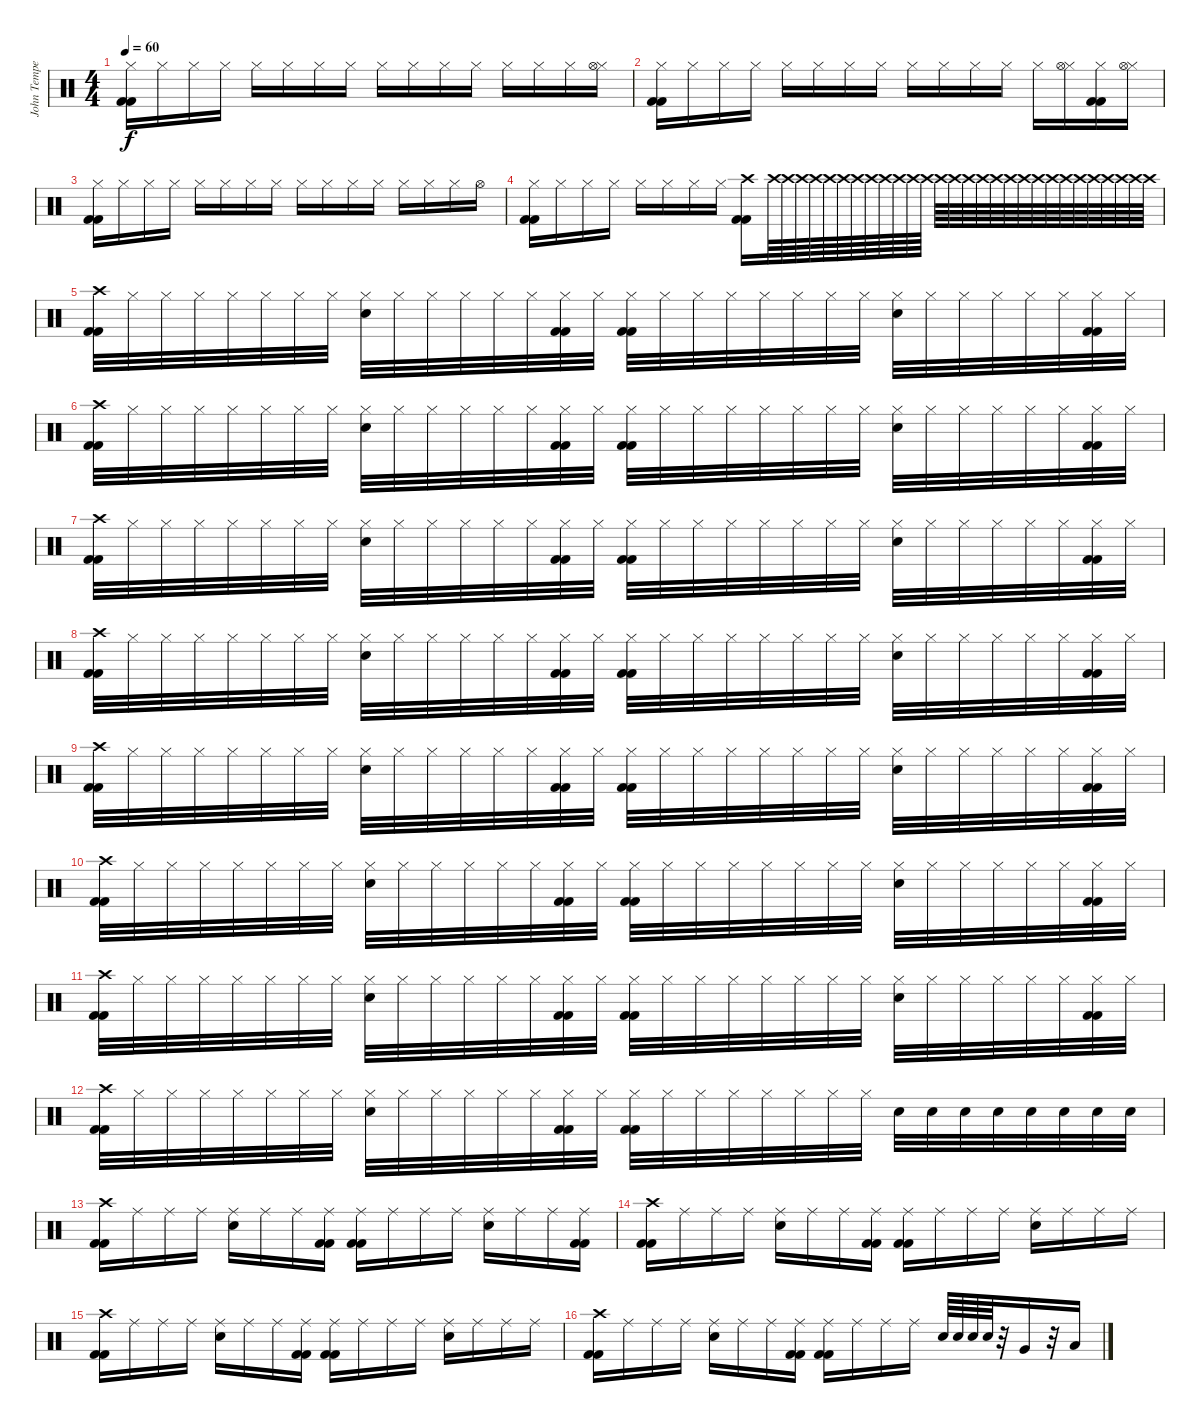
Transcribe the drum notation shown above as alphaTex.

\track ("John Tempesta" "John Tempe") {instrument percussion}
\staff {score}
\articulation defaults
\ts (4 4)
\tempo 60
\clef neutral
\ks c
("Hi-Hat (closed)" "Kick (hit) 2" "Kick (hit) 2").16{dy f} "Hi-Hat (closed)".16 "Hi-Hat (closed)".16 "Hi-Hat (closed)".16 "Hi-Hat (closed)".16 "Hi-Hat (closed)".16 "Hi-Hat (closed)".16 "Hi-Hat (closed)".16 "Hi-Hat (closed)".16 "Hi-Hat (closed)".16 "Hi-Hat (closed)".16 "Hi-Hat (closed)".16 "Hi-Hat (closed)".16 "Hi-Hat (closed)".16 "Hi-Hat (closed)".16 ("Hi-Hat (closed)" "Hi-Hat (open)").16 |
("Hi-Hat (closed)" "Kick (hit) 2" "Kick (hit) 2").16 "Hi-Hat (closed)".16 "Hi-Hat (closed)".16 "Hi-Hat (closed)".16 "Hi-Hat (closed)".16 "Hi-Hat (closed)".16 "Hi-Hat (closed)".16 "Hi-Hat (closed)".16 "Hi-Hat (closed)".16 "Hi-Hat (closed)".16 "Hi-Hat (closed)".16 "Hi-Hat (closed)".16 "Hi-Hat (closed)".16 ("Hi-Hat (closed)" "Hi-Hat (open)").16 ("Hi-Hat (closed)" "Kick (hit) 2" "Kick (hit) 2").16 ("Hi-Hat (closed)" "Hi-Hat (open)").16 |
("Hi-Hat (closed)" "Kick (hit) 2" "Kick (hit) 2").16 "Hi-Hat (closed)".16 "Hi-Hat (closed)".16 "Hi-Hat (closed)".16 "Hi-Hat (closed)".16 "Hi-Hat (closed)".16 "Hi-Hat (closed)".16 "Hi-Hat (closed)".16 "Hi-Hat (closed)".16 "Hi-Hat (closed)".16 "Hi-Hat (closed)".16 "Hi-Hat (closed)".16 "Hi-Hat (closed)".16 "Hi-Hat (closed)".16 "Hi-Hat (closed)".16 "Hi-Hat (open)".16 |
("Hi-Hat (closed)" "Kick (hit) 2" "Kick (hit) 2").16 "Hi-Hat (closed)".16 "Hi-Hat (closed)".16 "Hi-Hat (closed)".16 "Hi-Hat (closed)".16 "Hi-Hat (closed)".16 "Hi-Hat (closed)".16 "Hi-Hat (closed)".16 ("Crash high (hit)" "Kick (hit) 2" "Kick (hit) 2").16 "Crash high (hit)".64{volume 0} "Crash high (hit)".64{volume 12} "Crash high (hit)".64 "Crash high (hit)".64 "Crash high (hit)".64 "Crash high (hit)".64 "Crash high (hit)".64 "Crash high (hit)".64 "Crash high (hit)".64 "Crash high (hit)".64 "Crash high (hit)".64 "Crash high (hit)".64 "Crash high (hit)".64 "Crash high (hit)".64 "Crash high (hit)".64 "Crash high (hit)".64 "Crash high (hit)".64 "Crash high (hit)".64 "Crash high (hit)".64 "Crash high (hit)".64 "Crash high (hit)".64 "Crash high (hit)".64 "Crash high (hit)".64 "Crash high (hit)".64 "Crash high (hit)".64 "Crash high (hit)".64 "Crash high (hit)".64 "Crash high (hit)".64 |
("Crash high (hit)" "Kick (hit) 2" "Kick (hit) 2").32 "Hi-Hat (closed)".32 "Hi-Hat (closed)".32 "Hi-Hat (closed)".32 "Hi-Hat (closed)".32 "Hi-Hat (closed)".32 "Hi-Hat (closed)".32 "Hi-Hat (closed)".32 ("Hi-Hat (closed)" "Electric Snare (hit)").32 "Hi-Hat (closed)".32 "Hi-Hat (closed)".32 "Hi-Hat (closed)".32 "Hi-Hat (closed)".32 "Hi-Hat (closed)".32 ("Hi-Hat (closed)" "Kick (hit) 2" "Kick (hit) 2").32 "Hi-Hat (closed)".32 ("Hi-Hat (closed)" "Kick (hit) 2" "Kick (hit) 2").32 "Hi-Hat (closed)".32 "Hi-Hat (closed)".32 "Hi-Hat (closed)".32 "Hi-Hat (closed)".32 "Hi-Hat (closed)".32 "Hi-Hat (closed)".32 "Hi-Hat (closed)".32 ("Hi-Hat (closed)" "Electric Snare (hit)").32 "Hi-Hat (closed)".32 "Hi-Hat (closed)".32 "Hi-Hat (closed)".32 "Hi-Hat (closed)".32 "Hi-Hat (closed)".32 ("Hi-Hat (closed)" "Kick (hit) 2" "Kick (hit) 2").32 "Hi-Hat (closed)".32 |
("Crash high (hit)" "Kick (hit) 2" "Kick (hit) 2").32 "Hi-Hat (closed)".32 "Hi-Hat (closed)".32 "Hi-Hat (closed)".32 "Hi-Hat (closed)".32 "Hi-Hat (closed)".32 "Hi-Hat (closed)".32 "Hi-Hat (closed)".32 ("Hi-Hat (closed)" "Electric Snare (hit)").32 "Hi-Hat (closed)".32 "Hi-Hat (closed)".32 "Hi-Hat (closed)".32 "Hi-Hat (closed)".32 "Hi-Hat (closed)".32 ("Hi-Hat (closed)" "Kick (hit) 2" "Kick (hit) 2").32 "Hi-Hat (closed)".32 ("Hi-Hat (closed)" "Kick (hit) 2" "Kick (hit) 2").32 "Hi-Hat (closed)".32 "Hi-Hat (closed)".32 "Hi-Hat (closed)".32 "Hi-Hat (closed)".32 "Hi-Hat (closed)".32 "Hi-Hat (closed)".32 "Hi-Hat (closed)".32 ("Hi-Hat (closed)" "Electric Snare (hit)").32 "Hi-Hat (closed)".32 "Hi-Hat (closed)".32 "Hi-Hat (closed)".32 "Hi-Hat (closed)".32 "Hi-Hat (closed)".32 ("Hi-Hat (closed)" "Kick (hit) 2" "Kick (hit) 2").32 "Hi-Hat (closed)".32 |
("Crash high (hit)" "Kick (hit) 2" "Kick (hit) 2").32 "Hi-Hat (closed)".32 "Hi-Hat (closed)".32 "Hi-Hat (closed)".32 "Hi-Hat (closed)".32 "Hi-Hat (closed)".32 "Hi-Hat (closed)".32 "Hi-Hat (closed)".32 ("Hi-Hat (closed)" "Electric Snare (hit)").32 "Hi-Hat (closed)".32 "Hi-Hat (closed)".32 "Hi-Hat (closed)".32 "Hi-Hat (closed)".32 "Hi-Hat (closed)".32 ("Hi-Hat (closed)" "Kick (hit) 2" "Kick (hit) 2").32 "Hi-Hat (closed)".32 ("Hi-Hat (closed)" "Kick (hit) 2" "Kick (hit) 2").32 "Hi-Hat (closed)".32 "Hi-Hat (closed)".32 "Hi-Hat (closed)".32 "Hi-Hat (closed)".32 "Hi-Hat (closed)".32 "Hi-Hat (closed)".32 "Hi-Hat (closed)".32 ("Hi-Hat (closed)" "Electric Snare (hit)").32 "Hi-Hat (closed)".32 "Hi-Hat (closed)".32 "Hi-Hat (closed)".32 "Hi-Hat (closed)".32 "Hi-Hat (closed)".32 ("Hi-Hat (closed)" "Kick (hit) 2" "Kick (hit) 2").32 "Hi-Hat (closed)".32 |
("Crash high (hit)" "Kick (hit) 2" "Kick (hit) 2").32 "Hi-Hat (closed)".32 "Hi-Hat (closed)".32 "Hi-Hat (closed)".32 "Hi-Hat (closed)".32 "Hi-Hat (closed)".32 "Hi-Hat (closed)".32 "Hi-Hat (closed)".32 ("Hi-Hat (closed)" "Electric Snare (hit)").32 "Hi-Hat (closed)".32 "Hi-Hat (closed)".32 "Hi-Hat (closed)".32 "Hi-Hat (closed)".32 "Hi-Hat (closed)".32 ("Hi-Hat (closed)" "Kick (hit) 2" "Kick (hit) 2").32 "Hi-Hat (closed)".32 ("Hi-Hat (closed)" "Kick (hit) 2" "Kick (hit) 2").32 "Hi-Hat (closed)".32 "Hi-Hat (closed)".32 "Hi-Hat (closed)".32 "Hi-Hat (closed)".32 "Hi-Hat (closed)".32 "Hi-Hat (closed)".32 "Hi-Hat (closed)".32 ("Hi-Hat (closed)" "Electric Snare (hit)").32 "Hi-Hat (closed)".32 "Hi-Hat (closed)".32 "Hi-Hat (closed)".32 "Hi-Hat (closed)".32 "Hi-Hat (closed)".32 ("Hi-Hat (closed)" "Kick (hit) 2" "Kick (hit) 2").32 "Hi-Hat (closed)".32 |
("Crash high (hit)" "Kick (hit) 2" "Kick (hit) 2").32 "Hi-Hat (closed)".32 "Hi-Hat (closed)".32 "Hi-Hat (closed)".32 "Hi-Hat (closed)".32 "Hi-Hat (closed)".32 "Hi-Hat (closed)".32 "Hi-Hat (closed)".32 ("Hi-Hat (closed)" "Electric Snare (hit)").32 "Hi-Hat (closed)".32 "Hi-Hat (closed)".32 "Hi-Hat (closed)".32 "Hi-Hat (closed)".32 "Hi-Hat (closed)".32 ("Hi-Hat (closed)" "Kick (hit) 2" "Kick (hit) 2").32 "Hi-Hat (closed)".32 ("Hi-Hat (closed)" "Kick (hit) 2" "Kick (hit) 2").32 "Hi-Hat (closed)".32 "Hi-Hat (closed)".32 "Hi-Hat (closed)".32 "Hi-Hat (closed)".32 "Hi-Hat (closed)".32 "Hi-Hat (closed)".32 "Hi-Hat (closed)".32 ("Hi-Hat (closed)" "Electric Snare (hit)").32 "Hi-Hat (closed)".32 "Hi-Hat (closed)".32 "Hi-Hat (closed)".32 "Hi-Hat (closed)".32 "Hi-Hat (closed)".32 ("Hi-Hat (closed)" "Kick (hit) 2" "Kick (hit) 2").32 "Hi-Hat (closed)".32 |
("Crash high (hit)" "Kick (hit) 2" "Kick (hit) 2").32 "Hi-Hat (closed)".32 "Hi-Hat (closed)".32 "Hi-Hat (closed)".32 "Hi-Hat (closed)".32 "Hi-Hat (closed)".32 "Hi-Hat (closed)".32 "Hi-Hat (closed)".32 ("Hi-Hat (closed)" "Electric Snare (hit)").32 "Hi-Hat (closed)".32 "Hi-Hat (closed)".32 "Hi-Hat (closed)".32 "Hi-Hat (closed)".32 "Hi-Hat (closed)".32 ("Hi-Hat (closed)" "Kick (hit) 2" "Kick (hit) 2").32 "Hi-Hat (closed)".32 ("Hi-Hat (closed)" "Kick (hit) 2" "Kick (hit) 2").32 "Hi-Hat (closed)".32 "Hi-Hat (closed)".32 "Hi-Hat (closed)".32 "Hi-Hat (closed)".32 "Hi-Hat (closed)".32 "Hi-Hat (closed)".32 "Hi-Hat (closed)".32 ("Hi-Hat (closed)" "Electric Snare (hit)").32 "Hi-Hat (closed)".32 "Hi-Hat (closed)".32 "Hi-Hat (closed)".32 "Hi-Hat (closed)".32 "Hi-Hat (closed)".32 ("Hi-Hat (closed)" "Kick (hit) 2" "Kick (hit) 2").32 "Hi-Hat (closed)".32 |
("Crash high (hit)" "Kick (hit) 2" "Kick (hit) 2").32 "Hi-Hat (closed)".32 "Hi-Hat (closed)".32 "Hi-Hat (closed)".32 "Hi-Hat (closed)".32 "Hi-Hat (closed)".32 "Hi-Hat (closed)".32 "Hi-Hat (closed)".32 ("Hi-Hat (closed)" "Electric Snare (hit)").32 "Hi-Hat (closed)".32 "Hi-Hat (closed)".32 "Hi-Hat (closed)".32 "Hi-Hat (closed)".32 "Hi-Hat (closed)".32 ("Hi-Hat (closed)" "Kick (hit) 2" "Kick (hit) 2").32 "Hi-Hat (closed)".32 ("Hi-Hat (closed)" "Kick (hit) 2" "Kick (hit) 2").32 "Hi-Hat (closed)".32 "Hi-Hat (closed)".32 "Hi-Hat (closed)".32 "Hi-Hat (closed)".32 "Hi-Hat (closed)".32 "Hi-Hat (closed)".32 "Hi-Hat (closed)".32 ("Hi-Hat (closed)" "Electric Snare (hit)").32 "Hi-Hat (closed)".32 "Hi-Hat (closed)".32 "Hi-Hat (closed)".32 "Hi-Hat (closed)".32 "Hi-Hat (closed)".32 ("Hi-Hat (closed)" "Kick (hit) 2" "Kick (hit) 2").32 "Hi-Hat (closed)".32 |
("Crash high (hit)" "Kick (hit) 2" "Kick (hit) 2").32 "Hi-Hat (closed)".32 "Hi-Hat (closed)".32 "Hi-Hat (closed)".32 "Hi-Hat (closed)".32 "Hi-Hat (closed)".32 "Hi-Hat (closed)".32 "Hi-Hat (closed)".32 ("Hi-Hat (closed)" "Electric Snare (hit)").32 "Hi-Hat (closed)".32 "Hi-Hat (closed)".32 "Hi-Hat (closed)".32 "Hi-Hat (closed)".32 "Hi-Hat (closed)".32 ("Hi-Hat (closed)" "Kick (hit) 2" "Kick (hit) 2").32 "Hi-Hat (closed)".32 ("Hi-Hat (closed)" "Kick (hit) 2" "Kick (hit) 2").32 "Hi-Hat (closed)".32 "Hi-Hat (closed)".32 "Hi-Hat (closed)".32 "Hi-Hat (closed)".32 "Hi-Hat (closed)".32 "Hi-Hat (closed)".32 "Hi-Hat (closed)".32 "Electric Snare (hit)".32 "Electric Snare (hit)".32 "Electric Snare (hit)".32 "Electric Snare (hit)".32 "Electric Snare (hit)".32 "Electric Snare (hit)".32 "Electric Snare (hit)".32 "Electric Snare (hit)".32 |
("Crash high (hit)" "Kick (hit) 2" "Kick (hit) 2").16 "Ride (middle)".16 "Ride (middle)".16 "Ride (middle)".16 ("Ride (middle)" "Electric Snare (hit)").16 "Ride (middle)".16 "Ride (middle)".16 ("Ride (middle)" "Kick (hit) 2" "Kick (hit) 2").16 ("Ride (middle)" "Kick (hit) 2" "Kick (hit) 2").16 "Ride (middle)".16 "Ride (middle)".16 "Ride (middle)".16 ("Ride (middle)" "Electric Snare (hit)").16 "Ride (middle)".16 "Ride (middle)".16 ("Ride (middle)" "Kick (hit) 2" "Kick (hit) 2").16 |
("Crash high (hit)" "Kick (hit) 2" "Kick (hit) 2").16 "Ride (middle)".16 "Ride (middle)".16 "Ride (middle)".16 ("Ride (middle)" "Electric Snare (hit)").16 "Ride (middle)".16 "Ride (middle)".16 ("Ride (middle)" "Kick (hit) 2" "Kick (hit) 2").16 ("Ride (middle)" "Kick (hit) 2" "Kick (hit) 2").16 "Ride (middle)".16 "Ride (middle)".16 "Ride (middle)".16 ("Ride (middle)" "Electric Snare (hit)").16 "Ride (middle)".16 "Ride (middle)".16 "Ride (middle)".16 |
("Crash high (hit)" "Kick (hit) 2" "Kick (hit) 2").16 "Ride (middle)".16 "Ride (middle)".16 "Ride (middle)".16 ("Ride (middle)" "Electric Snare (hit)").16 "Ride (middle)".16 "Ride (middle)".16 ("Ride (middle)" "Kick (hit) 2" "Kick (hit) 2").16 ("Ride (middle)" "Kick (hit) 2" "Kick (hit) 2").16 "Ride (middle)".16 "Ride (middle)".16 "Ride (middle)".16 ("Ride (middle)" "Electric Snare (hit)").16 "Ride (middle)".16 "Ride (middle)".16 "Ride (middle)".16 |
("Crash high (hit)" "Kick (hit) 2" "Kick (hit) 2").16 "Ride (middle)".16 "Ride (middle)".16 "Ride (middle)".16 ("Ride (middle)" "Electric Snare (hit)").16 "Ride (middle)".16 "Ride (middle)".16 ("Ride (middle)" "Kick (hit) 2" "Kick (hit) 2").16 ("Ride (middle)" "Kick (hit) 2" "Kick (hit) 2").16 "Ride (middle)".16 "Ride (middle)".16 "Ride (middle)".16 "Electric Snare (hit)".64 "Electric Snare (hit)".64 "Electric Snare (hit)".64 "Electric Snare (hit)".64 r.32 "Very Low Tom (hit)".16 r.32 "Low Floor Tom (hit)".16
